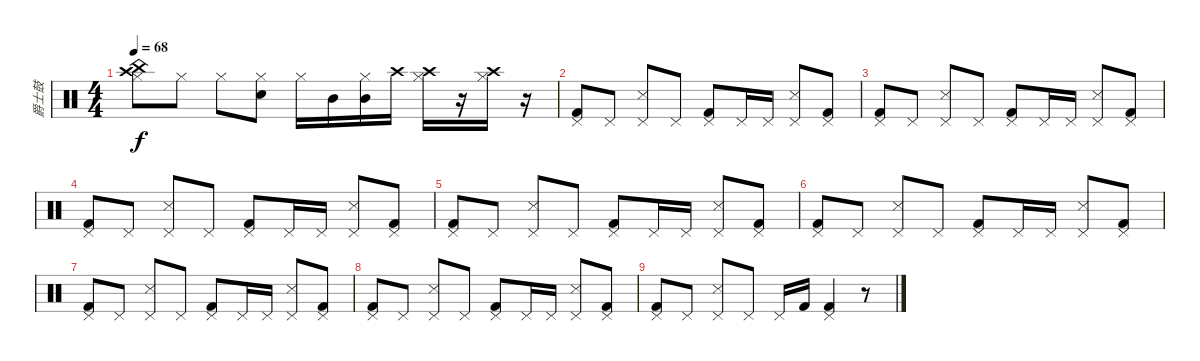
\track ("爵士鼓" "爵士鼓") {instrument percussion}
\staff {score}
\articulation defaults
\ts (4 4)
\tempo 68
\clef neutral
\ks c
("China (hit)" "Crash high (hit)" "Hi-Hat (closed)").8{dy f} "Hi-Hat (closed)".8 "Hi-Hat (closed)".8 ("Snare (hit) 2" "Hi-Hat (closed)").8 "Hi-Hat (closed)".16 "Mid Tom (hit)".16 ("Mid Tom (hit)" "Hi-Hat (closed)").16 "Crash high (hit)".16 ("Crash high (hit)" "Hi-Hat (closed)").16 r.16 ("Crash high (hit)" "Hi-Hat (closed)").16 r.16 |
("Kick (hit) 2" "Pedal Hi-Hat (hit)").8 "Pedal Hi-Hat (hit)".8 ("Snare (side stick) 3" "Pedal Hi-Hat (hit)").8 "Pedal Hi-Hat (hit)".8 ("Kick (hit) 2" "Pedal Hi-Hat (hit)").8 "Pedal Hi-Hat (hit)".16 "Pedal Hi-Hat (hit)".16 ("Snare (side stick) 3" "Pedal Hi-Hat (hit)").8 ("Kick (hit) 2" "Pedal Hi-Hat (hit)").8 |
("Kick (hit) 2" "Pedal Hi-Hat (hit)").8 "Pedal Hi-Hat (hit)".8 ("Snare (side stick) 3" "Pedal Hi-Hat (hit)").8 "Pedal Hi-Hat (hit)".8 ("Kick (hit) 2" "Pedal Hi-Hat (hit)").8 "Pedal Hi-Hat (hit)".16 "Pedal Hi-Hat (hit)".16 ("Snare (side stick) 3" "Pedal Hi-Hat (hit)").8 ("Kick (hit) 2" "Pedal Hi-Hat (hit)").8 |
("Kick (hit) 2" "Pedal Hi-Hat (hit)").8 "Pedal Hi-Hat (hit)".8 ("Snare (side stick) 3" "Pedal Hi-Hat (hit)").8 "Pedal Hi-Hat (hit)".8 ("Kick (hit) 2" "Pedal Hi-Hat (hit)").8 "Pedal Hi-Hat (hit)".16 "Pedal Hi-Hat (hit)".16 ("Snare (side stick) 3" "Pedal Hi-Hat (hit)").8 ("Kick (hit) 2" "Pedal Hi-Hat (hit)").8 |
("Kick (hit) 2" "Pedal Hi-Hat (hit)").8 "Pedal Hi-Hat (hit)".8 ("Snare (side stick) 3" "Pedal Hi-Hat (hit)").8 "Pedal Hi-Hat (hit)".8 ("Kick (hit) 2" "Pedal Hi-Hat (hit)").8 "Pedal Hi-Hat (hit)".16 "Pedal Hi-Hat (hit)".16 ("Snare (side stick) 3" "Pedal Hi-Hat (hit)").8 ("Kick (hit) 2" "Pedal Hi-Hat (hit)").8 |
("Kick (hit) 2" "Pedal Hi-Hat (hit)").8 "Pedal Hi-Hat (hit)".8 ("Snare (side stick) 3" "Pedal Hi-Hat (hit)").8 "Pedal Hi-Hat (hit)".8 ("Kick (hit) 2" "Pedal Hi-Hat (hit)").8 "Pedal Hi-Hat (hit)".16 "Pedal Hi-Hat (hit)".16 ("Snare (side stick) 3" "Pedal Hi-Hat (hit)").8 ("Kick (hit) 2" "Pedal Hi-Hat (hit)").8 |
("Kick (hit) 2" "Pedal Hi-Hat (hit)").8 "Pedal Hi-Hat (hit)".8 ("Snare (side stick) 3" "Pedal Hi-Hat (hit)").8 "Pedal Hi-Hat (hit)".8 ("Kick (hit) 2" "Pedal Hi-Hat (hit)").8 "Pedal Hi-Hat (hit)".16 "Pedal Hi-Hat (hit)".16 ("Snare (side stick) 3" "Pedal Hi-Hat (hit)").8 ("Kick (hit) 2" "Pedal Hi-Hat (hit)").8 |
("Kick (hit) 2" "Pedal Hi-Hat (hit)").8 "Pedal Hi-Hat (hit)".8 ("Snare (side stick) 3" "Pedal Hi-Hat (hit)").8 "Pedal Hi-Hat (hit)".8 ("Kick (hit) 2" "Pedal Hi-Hat (hit)").8 "Pedal Hi-Hat (hit)".16 "Pedal Hi-Hat (hit)".16 ("Snare (side stick) 3" "Pedal Hi-Hat (hit)").8 ("Kick (hit) 2" "Pedal Hi-Hat (hit)").8 |
("Kick (hit) 2" "Pedal Hi-Hat (hit)").8 "Pedal Hi-Hat (hit)".8 ("Snare (side stick) 3" "Pedal Hi-Hat (hit)").8 "Pedal Hi-Hat (hit)".8 "Pedal Hi-Hat (hit)".16 "Kick (hit) 2".16 ("Kick (hit) 2" "Pedal Hi-Hat (hit)").4 r.8
